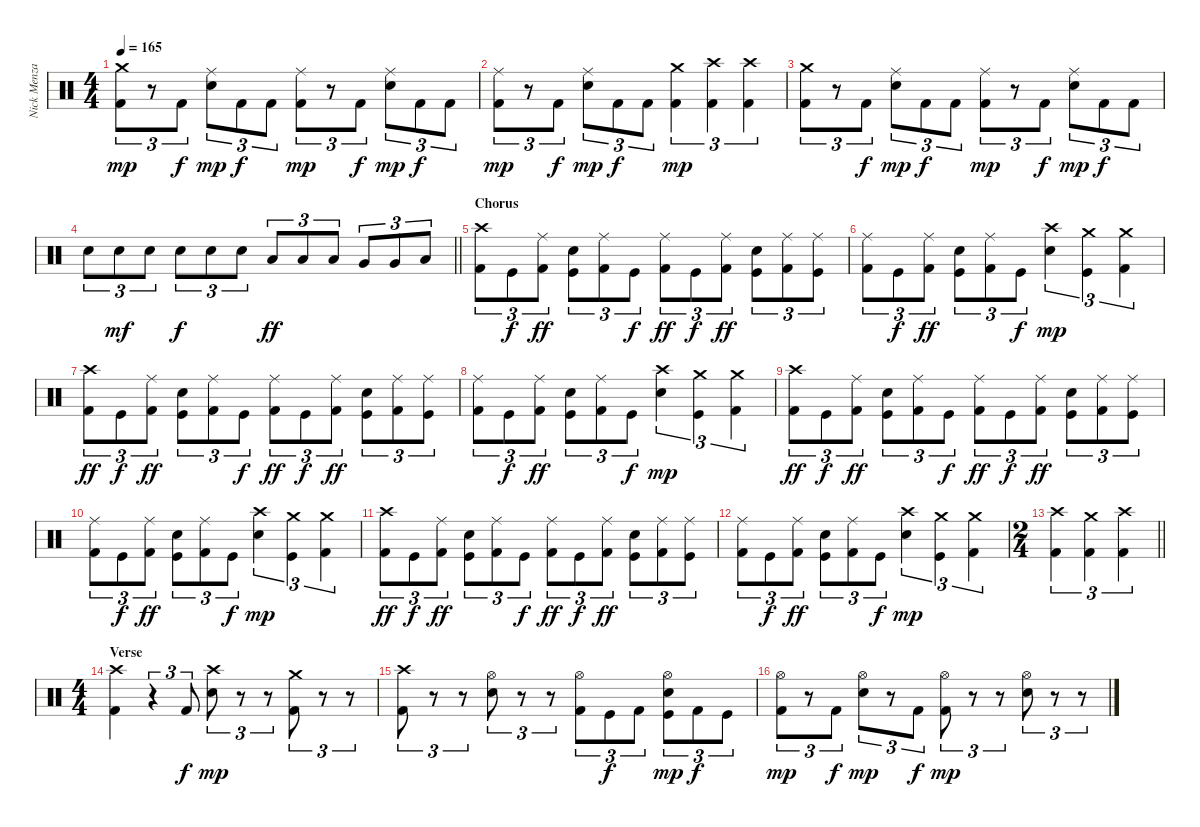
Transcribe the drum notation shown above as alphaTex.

\track ("Nick Menza" "Nick Menza") {solo instrument percussion}
\staff {score}
\articulation defaults
\ts (4 4)
\tempo 165
\clef neutral
\ks c
("Crash medium (hit)" "Kick (hit) 2").8{tu (3 2) dy mp} r.8{tu (3 2)} "Kick (hit) 2".8{tu (3 2) dy f} ("Ride (middle)" "Electric Snare (hit)").8{tu (3 2) dy mp} "Kick (hit) 2".8{tu (3 2) dy f} "Kick (hit) 2".8{tu (3 2)} ("Ride (middle)" "Kick (hit) 2").8{tu (3 2) dy mp} r.8{tu (3 2)} "Kick (hit) 2".8{tu (3 2) dy f} ("Ride (middle)" "Electric Snare (hit)").8{tu (3 2) dy mp} "Kick (hit) 2".8{tu (3 2) dy f} "Kick (hit) 2".8{tu (3 2)} |
("Ride (middle)" "Kick (hit) 2").8{tu (3 2) dy mp} r.8{tu (3 2)} "Kick (hit) 2".8{tu (3 2) dy f} ("Ride (middle)" "Electric Snare (hit)").8{tu (3 2) dy mp} "Kick (hit) 2".8{tu (3 2) dy f} "Kick (hit) 2".8{tu (3 2)} ("Crash medium (hit)" "Kick (hit) 2").4{tu (3 2) dy mp} ("Crash high (hit)" "Kick (hit) 2").4{tu (3 2)} ("Crash high (hit)" "Kick (hit) 2").4{tu (3 2)} |
("Crash medium (hit)" "Kick (hit) 2").8{tu (3 2)} r.8{tu (3 2)} "Kick (hit) 2".8{tu (3 2) dy f} ("Ride (middle)" "Electric Snare (hit)").8{tu (3 2) dy mp} "Kick (hit) 2".8{tu (3 2) dy f} "Kick (hit) 2".8{tu (3 2)} ("Ride (middle)" "Kick (hit) 2").8{tu (3 2) dy mp} r.8{tu (3 2)} "Kick (hit) 2".8{tu (3 2) dy f} ("Ride (middle)" "Electric Snare (hit)").8{tu (3 2) dy mp} "Kick (hit) 2".8{tu (3 2) dy f} "Kick (hit) 2".8{tu (3 2)} |
\barLineRight lightlight "Electric Snare (hit)".8{tu (3 2)} "Electric Snare (hit)".8{tu (3 2) dy mf} "Electric Snare (hit)".8{tu (3 2)} "Electric Snare (hit)".8{tu (3 2) dy f} "Electric Snare (hit)".8{tu (3 2)} "Electric Snare (hit)".8{tu (3 2)} "Low Tom (hit)".8{tu (3 2) dy ff} "Low Tom (hit)".8{tu (3 2)} "Low Tom (hit)".8{tu (3 2)} "Very Low Tom (hit)".8{tu (3 2)} "Very Low Tom (hit)".8{tu (3 2)} "Low Floor Tom (hit)".8{tu (3 2)}
|
\section ("" "Chorus")
("Crash high (hit)" "Kick (hit) 2").8{tu (3 2)} "Kick (hit)".8{tu (3 2) dy f} ("Ride (middle)" "Kick (hit) 2").8{tu (3 2) dy ff} ("Electric Snare (hit)" "Kick (hit)").8{tu (3 2)} ("Ride (middle)" "Kick (hit) 2").8{tu (3 2)} "Kick (hit)".8{tu (3 2) dy f} ("Ride (middle)" "Kick (hit) 2").8{tu (3 2) dy ff} "Kick (hit)".8{tu (3 2) dy f} ("Ride (middle)" "Kick (hit) 2").8{tu (3 2) dy ff} ("Electric Snare (hit)" "Kick (hit)").8{tu (3 2)} ("Ride (middle)" "Kick (hit) 2").8{tu (3 2)} ("Ride (middle)" "Kick (hit)").8{tu (3 2)} |
("Ride (middle)" "Kick (hit) 2").8{tu (3 2)} "Kick (hit)".8{tu (3 2) dy f} ("Ride (middle)" "Kick (hit) 2").8{tu (3 2) dy ff} ("Electric Snare (hit)" "Kick (hit)").8{tu (3 2)} ("Ride (middle)" "Kick (hit) 2").8{tu (3 2)} "Kick (hit)".8{tu (3 2) dy f} ("Crash high (hit)" "Electric Snare (hit)").4{tu (3 2) dy mp} ("Crash medium (hit)" "Kick (hit)").4{tu (3 2)} ("Crash medium (hit)" "Kick (hit) 2").4{tu (3 2)} |
("Crash high (hit)" "Kick (hit) 2").8{tu (3 2) dy ff} "Kick (hit)".8{tu (3 2) dy f} ("Ride (middle)" "Kick (hit) 2").8{tu (3 2) dy ff} ("Electric Snare (hit)" "Kick (hit)").8{tu (3 2)} ("Ride (middle)" "Kick (hit) 2").8{tu (3 2)} "Kick (hit)".8{tu (3 2) dy f} ("Ride (middle)" "Kick (hit) 2").8{tu (3 2) dy ff} "Kick (hit)".8{tu (3 2) dy f} ("Ride (middle)" "Kick (hit) 2").8{tu (3 2) dy ff} ("Electric Snare (hit)" "Kick (hit)").8{tu (3 2)} ("Ride (middle)" "Kick (hit) 2").8{tu (3 2)} ("Ride (middle)" "Kick (hit)").8{tu (3 2)} |
("Ride (middle)" "Kick (hit) 2").8{tu (3 2)} "Kick (hit)".8{tu (3 2) dy f} ("Ride (middle)" "Kick (hit) 2").8{tu (3 2) dy ff} ("Electric Snare (hit)" "Kick (hit)").8{tu (3 2)} ("Ride (middle)" "Kick (hit) 2").8{tu (3 2)} "Kick (hit)".8{tu (3 2) dy f} ("Crash high (hit)" "Electric Snare (hit)").4{tu (3 2) dy mp} ("Crash medium (hit)" "Kick (hit)").4{tu (3 2)} ("Crash medium (hit)" "Kick (hit) 2").4{tu (3 2)} |
("Crash high (hit)" "Kick (hit) 2").8{tu (3 2) dy ff} "Kick (hit)".8{tu (3 2) dy f} ("Ride (middle)" "Kick (hit) 2").8{tu (3 2) dy ff} ("Electric Snare (hit)" "Kick (hit)").8{tu (3 2)} ("Ride (middle)" "Kick (hit) 2").8{tu (3 2)} "Kick (hit)".8{tu (3 2) dy f} ("Ride (middle)" "Kick (hit) 2").8{tu (3 2) dy ff} "Kick (hit)".8{tu (3 2) dy f} ("Ride (middle)" "Kick (hit) 2").8{tu (3 2) dy ff} ("Electric Snare (hit)" "Kick (hit)").8{tu (3 2)} ("Ride (middle)" "Kick (hit) 2").8{tu (3 2)} ("Ride (middle)" "Kick (hit)").8{tu (3 2)} |
("Ride (middle)" "Kick (hit) 2").8{tu (3 2)} "Kick (hit)".8{tu (3 2) dy f} ("Ride (middle)" "Kick (hit) 2").8{tu (3 2) dy ff} ("Electric Snare (hit)" "Kick (hit)").8{tu (3 2)} ("Ride (middle)" "Kick (hit) 2").8{tu (3 2)} "Kick (hit)".8{tu (3 2) dy f} ("Crash high (hit)" "Electric Snare (hit)").4{tu (3 2) dy mp} ("Crash medium (hit)" "Kick (hit)").4{tu (3 2)} ("Crash medium (hit)" "Kick (hit) 2").4{tu (3 2)} |
("Crash high (hit)" "Kick (hit) 2").8{tu (3 2) dy ff} "Kick (hit)".8{tu (3 2) dy f} ("Ride (middle)" "Kick (hit) 2").8{tu (3 2) dy ff} ("Electric Snare (hit)" "Kick (hit)").8{tu (3 2)} ("Ride (middle)" "Kick (hit) 2").8{tu (3 2)} "Kick (hit)".8{tu (3 2) dy f} ("Ride (middle)" "Kick (hit) 2").8{tu (3 2) dy ff} "Kick (hit)".8{tu (3 2) dy f} ("Ride (middle)" "Kick (hit) 2").8{tu (3 2) dy ff} ("Electric Snare (hit)" "Kick (hit)").8{tu (3 2)} ("Ride (middle)" "Kick (hit) 2").8{tu (3 2)} ("Ride (middle)" "Kick (hit)").8{tu (3 2)} |
("Ride (middle)" "Kick (hit) 2").8{tu (3 2)} "Kick (hit)".8{tu (3 2) dy f} ("Ride (middle)" "Kick (hit) 2").8{tu (3 2) dy ff} ("Electric Snare (hit)" "Kick (hit)").8{tu (3 2)} ("Ride (middle)" "Kick (hit) 2").8{tu (3 2)} "Kick (hit)".8{tu (3 2) dy f} ("Crash high (hit)" "Electric Snare (hit)").4{tu (3 2) dy mp} ("Crash medium (hit)" "Kick (hit)").4{tu (3 2)} ("Crash medium (hit)" "Kick (hit) 2").4{tu (3 2)} |
\ts (2 4)
\barLineRight lightlight
("Crash high (hit)" "Kick (hit) 2").4{tu (3 2)} ("Crash medium (hit)" "Kick (hit) 2").4{tu (3 2)} ("Crash high (hit)" "Kick (hit) 2").4{tu (3 2)} |
\ts (4 4)
\section ("" "Verse")
("Crash high (hit)" "Kick (hit) 2").4 r.4{tu (3 2)} "Kick (hit) 2".8{tu (3 2) dy f} ("Crash high (hit)" "Electric Snare (hit)").8{tu (3 2) dy mp} r.8{tu (3 2)} r.8{tu (3 2)} ("Crash medium (hit)" "Kick (hit) 2").8{tu (3 2)} r.8{tu (3 2)} r.8{tu (3 2)} |
("Crash high (hit)" "Kick (hit) 2").8{tu (3 2)} r.8{tu (3 2)} r.8{tu (3 2)} ("Hi-Hat (open)" "Electric Snare (hit)").8{tu (3 2)} r.8{tu (3 2)} r.8{tu (3 2)} ("Hi-Hat (open)" "Kick (hit) 2").8{tu (3 2)} "Kick (hit)".8{tu (3 2) dy f} "Kick (hit) 2".8{tu (3 2)} ("Hi-Hat (open)" "Electric Snare (hit)" "Kick (hit)").8{tu (3 2) dy mp} "Kick (hit) 2".8{tu (3 2) dy f} "Kick (hit)".8{tu (3 2)} |
("Hi-Hat (open)" "Kick (hit) 2").8{tu (3 2) dy mp} r.8{tu (3 2)} "Kick (hit) 2".8{tu (3 2) dy f} ("Hi-Hat (open)" "Electric Snare (hit)").8{tu (3 2) dy mp} r.8{tu (3 2)} "Kick (hit) 2".8{tu (3 2) dy f} ("Hi-Hat (open)" "Kick (hit) 2").8{tu (3 2) dy mp} r.8{tu (3 2)} r.8{tu (3 2)} ("Hi-Hat (open)" "Electric Snare (hit)").8{tu (3 2)} r.8{tu (3 2)} r.8{tu (3 2)}
